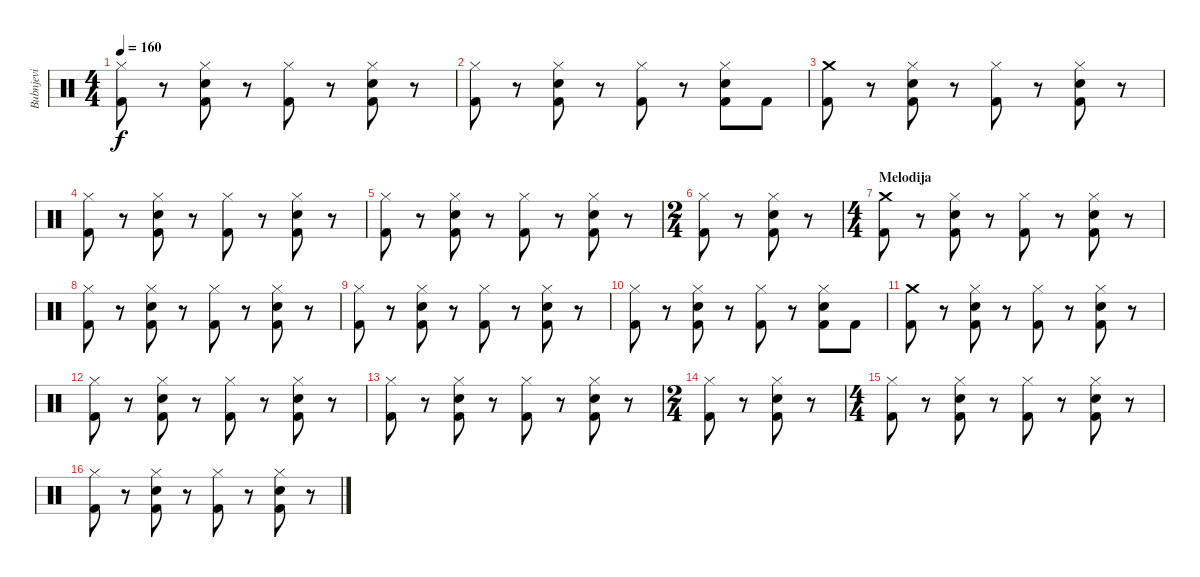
\track ("Bubnjevi" "Bubnjevi") {instrument percussion}
\staff {score}
\articulation defaults
\ts (4 4)
\tempo 160
\clef neutral
\ks c
("Hi-Hat (closed)" "Kick (hit) 2").8{dy f} r.8 ("Electric Snare (hit)" "Hi-Hat (closed)" "Kick (hit) 2").8 r.8 ("Hi-Hat (closed)" "Kick (hit) 2").8 r.8 ("Electric Snare (hit)" "Hi-Hat (closed)" "Kick (hit) 2").8 r.8 |
("Hi-Hat (closed)" "Kick (hit) 2").8 r.8 ("Electric Snare (hit)" "Hi-Hat (closed)" "Kick (hit) 2").8 r.8 ("Hi-Hat (closed)" "Kick (hit) 2").8 r.8 ("Electric Snare (hit)" "Hi-Hat (closed)" "Kick (hit) 2").8 "Kick (hit) 2".8 |
("Crash medium (hit)" "Kick (hit) 2").8 r.8 ("Electric Snare (hit)" "Hi-Hat (closed)" "Kick (hit) 2").8 r.8 ("Hi-Hat (closed)" "Kick (hit) 2").8 r.8 ("Electric Snare (hit)" "Hi-Hat (closed)" "Kick (hit) 2").8 r.8 |
("Hi-Hat (closed)" "Kick (hit) 2").8 r.8 ("Electric Snare (hit)" "Hi-Hat (closed)" "Kick (hit) 2").8 r.8 ("Hi-Hat (closed)" "Kick (hit) 2").8 r.8 ("Electric Snare (hit)" "Hi-Hat (closed)" "Kick (hit) 2").8 r.8 |
("Hi-Hat (closed)" "Kick (hit) 2").8 r.8 ("Electric Snare (hit)" "Hi-Hat (closed)" "Kick (hit) 2").8 r.8 ("Hi-Hat (closed)" "Kick (hit) 2").8 r.8 ("Electric Snare (hit)" "Hi-Hat (closed)" "Kick (hit) 2").8 r.8 |
\ts (2 4)
("Hi-Hat (closed)" "Kick (hit) 2").8 r.8 ("Electric Snare (hit)" "Hi-Hat (closed)" "Kick (hit) 2").8 r.8 |
\ts (4 4)
\section ("" "Melodija")
("Crash medium (hit)" "Kick (hit) 2").8 r.8 ("Electric Snare (hit)" "Hi-Hat (closed)" "Kick (hit) 2").8 r.8 ("Hi-Hat (closed)" "Kick (hit) 2").8 r.8 ("Electric Snare (hit)" "Hi-Hat (closed)" "Kick (hit) 2").8 r.8 |
("Hi-Hat (closed)" "Kick (hit) 2").8 r.8 ("Electric Snare (hit)" "Hi-Hat (closed)" "Kick (hit) 2").8 r.8 ("Hi-Hat (closed)" "Kick (hit) 2").8 r.8 ("Electric Snare (hit)" "Hi-Hat (closed)" "Kick (hit) 2").8 r.8 |
("Hi-Hat (closed)" "Kick (hit) 2").8 r.8 ("Electric Snare (hit)" "Hi-Hat (closed)" "Kick (hit) 2").8 r.8 ("Hi-Hat (closed)" "Kick (hit) 2").8 r.8 ("Electric Snare (hit)" "Hi-Hat (closed)" "Kick (hit) 2").8 r.8 |
("Hi-Hat (closed)" "Kick (hit) 2").8 r.8 ("Electric Snare (hit)" "Hi-Hat (closed)" "Kick (hit) 2").8 r.8 ("Hi-Hat (closed)" "Kick (hit) 2").8 r.8 ("Electric Snare (hit)" "Hi-Hat (closed)" "Kick (hit) 2").8 "Kick (hit) 2".8 |
("Crash medium (hit)" "Kick (hit) 2").8 r.8 ("Electric Snare (hit)" "Hi-Hat (closed)" "Kick (hit) 2").8 r.8 ("Hi-Hat (closed)" "Kick (hit) 2").8 r.8 ("Electric Snare (hit)" "Hi-Hat (closed)" "Kick (hit) 2").8 r.8 |
("Hi-Hat (closed)" "Kick (hit) 2").8 r.8 ("Electric Snare (hit)" "Hi-Hat (closed)" "Kick (hit) 2").8 r.8 ("Hi-Hat (closed)" "Kick (hit) 2").8 r.8 ("Electric Snare (hit)" "Hi-Hat (closed)" "Kick (hit) 2").8 r.8 |
("Hi-Hat (closed)" "Kick (hit) 2").8 r.8 ("Electric Snare (hit)" "Hi-Hat (closed)" "Kick (hit) 2").8 r.8 ("Hi-Hat (closed)" "Kick (hit) 2").8 r.8 ("Electric Snare (hit)" "Hi-Hat (closed)" "Kick (hit) 2").8 r.8 |
\ts (2 4)
("Hi-Hat (closed)" "Kick (hit) 2").8 r.8 ("Electric Snare (hit)" "Hi-Hat (closed)" "Kick (hit) 2").8 r.8 |
\ts (4 4)
("Hi-Hat (closed)" "Kick (hit) 2").8 r.8 ("Electric Snare (hit)" "Hi-Hat (closed)" "Kick (hit) 2").8 r.8 ("Hi-Hat (closed)" "Kick (hit) 2").8 r.8 ("Electric Snare (hit)" "Hi-Hat (closed)" "Kick (hit) 2").8 r.8 |
("Hi-Hat (closed)" "Kick (hit) 2").8 r.8 ("Electric Snare (hit)" "Hi-Hat (closed)" "Kick (hit) 2").8 r.8 ("Hi-Hat (closed)" "Kick (hit) 2").8 r.8 ("Electric Snare (hit)" "Hi-Hat (closed)" "Kick (hit) 2").8 r.8
